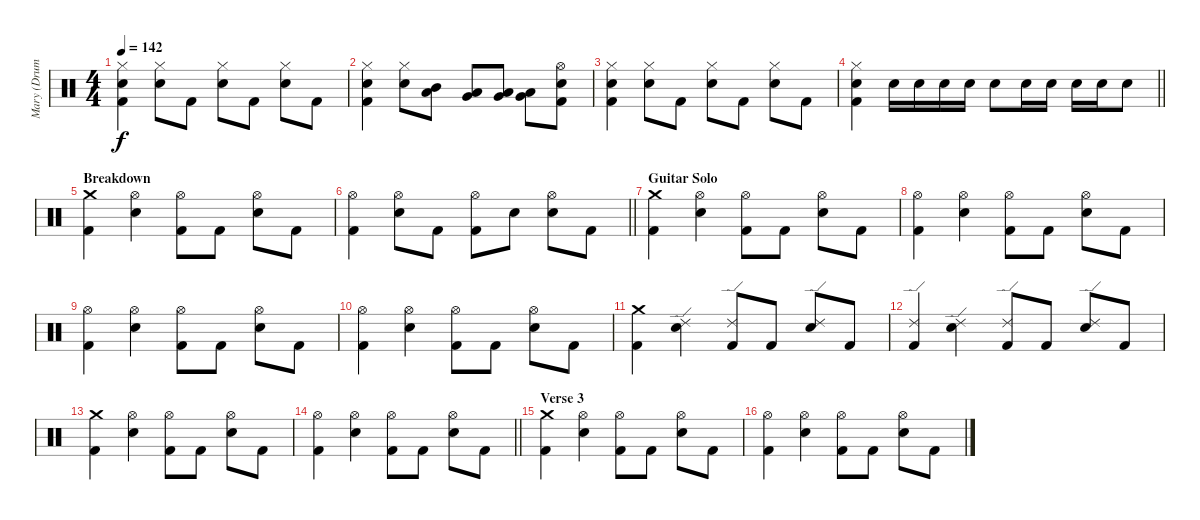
\track ("Mary (Drums)" "Mary (Drum") {instrument percussion}
\staff {score}
\articulation defaults
\ts (4 4)
\tempo 142
\clef neutral
\ks c
("Hi-Hat (closed)" "Snare (hit) 2" "Kick (hit) 2").4{dy f} ("Hi-Hat (closed)" "Snare (hit) 2").8 "Kick (hit) 2".8 ("Hi-Hat (closed)" "Snare (hit) 2").8 "Kick (hit) 2".8 ("Hi-Hat (closed)" "Snare (hit) 2").8 "Kick (hit) 2".8 |
("Hi-Hat (closed)" "Snare (hit) 2" "Kick (hit) 2").4 ("Hi-Hat (closed)" "Snare (hit) 2").8 ("Mid Tom (hit)" "Low Tom (hit)").8 ("Very Low Tom (hit)" "Low Tom (hit)").8 ("Very Low Tom (hit)" "Low Floor Tom (hit)").8 ("Very Low Tom (hit)" "Low Floor Tom (hit)").8 ("Hi-Hat (open)" "Snare (hit) 2" "Kick (hit) 2").8 |
("Hi-Hat (closed)" "Snare (hit) 2" "Kick (hit) 2").4 ("Hi-Hat (closed)" "Snare (hit) 2").8 "Kick (hit) 2".8 ("Hi-Hat (closed)" "Snare (hit) 2").8 "Kick (hit) 2".8 ("Hi-Hat (closed)" "Snare (hit) 2").8 "Kick (hit) 2".8 |
\barLineRight lightlight
("Hi-Hat (closed)" "Snare (hit) 2" "Kick (hit) 2").4 "Snare (hit) 2".16 "Snare (hit) 2".16 "Snare (hit) 2".16 "Snare (hit) 2".16 "Snare (hit) 2".8 "Snare (hit) 2".16 "Snare (hit) 2".16 "Snare (hit) 2".16 "Snare (hit) 2".16 "Snare (hit) 2".8 |
\section ("" "Breakdown")
("Crash medium (hit)" "Kick (hit) 2").4 ("Hi-Hat (open)" "Snare (hit) 2").4 ("Hi-Hat (open)" "Kick (hit) 2").8 "Kick (hit) 2".8 ("Hi-Hat (open)" "Snare (hit) 2").8 "Kick (hit) 2".8 |
\barLineRight lightlight
("Hi-Hat (open)" "Kick (hit) 2").4 ("Hi-Hat (open)" "Snare (hit) 2").8 "Kick (hit) 2".8 ("Hi-Hat (open)" "Kick (hit) 2").8 "Snare (hit) 2".8 ("Hi-Hat (open)" "Snare (hit) 2").8 "Kick (hit) 2".8 |
\section ("" "Guitar Solo")
("Crash medium (hit)" "Kick (hit) 2").4 ("Hi-Hat (open)" "Snare (hit) 2").4 ("Hi-Hat (open)" "Kick (hit) 2").8 "Kick (hit) 2".8 ("Hi-Hat (open)" "Snare (hit) 2").8 "Kick (hit) 2".8 |
("Hi-Hat (open)" "Kick (hit) 2").4 ("Hi-Hat (open)" "Snare (hit) 2").4 ("Hi-Hat (open)" "Kick (hit) 2").8 "Kick (hit) 2".8 ("Hi-Hat (open)" "Snare (hit) 2").8 "Kick (hit) 2".8 |
("Hi-Hat (open)" "Kick (hit) 2").4 ("Hi-Hat (open)" "Snare (hit) 2").4 ("Hi-Hat (open)" "Kick (hit) 2").8 "Kick (hit) 2".8 ("Hi-Hat (open)" "Snare (hit) 2").8 "Kick (hit) 2".8 |
("Hi-Hat (open)" "Kick (hit) 2").4 ("Hi-Hat (open)" "Snare (hit) 2").4 ("Hi-Hat (open)" "Kick (hit) 2").8 "Kick (hit) 2".8 ("Hi-Hat (open)" "Snare (hit) 2").8 "Kick (hit) 2".8 |
("Crash medium (hit)" "Kick (hit) 2").4 ("Ride (edge) 2" "Snare (hit) 2").4 ("Ride (edge) 2" "Kick (hit) 2").8 "Kick (hit) 2".8 ("Ride (edge) 2" "Snare (hit) 2").8 "Kick (hit) 2".8 |
("Ride (edge) 2" "Kick (hit) 2").4 ("Ride (edge) 2" "Snare (hit) 2").4 ("Ride (edge) 2" "Kick (hit) 2").8 "Kick (hit) 2".8 ("Ride (edge) 2" "Snare (hit) 2").8 "Kick (hit) 2".8 |
("Crash medium (hit)" "Kick (hit) 2").4 ("Hi-Hat (open)" "Snare (hit) 2").4 ("Hi-Hat (open)" "Kick (hit) 2").8 "Kick (hit) 2".8 ("Hi-Hat (open)" "Snare (hit) 2").8 "Kick (hit) 2".8 |
\barLineRight lightlight
("Hi-Hat (open)" "Kick (hit) 2").4 ("Hi-Hat (open)" "Snare (hit) 2").4 ("Hi-Hat (open)" "Kick (hit) 2").8 "Kick (hit) 2".8 ("Hi-Hat (open)" "Snare (hit) 2").8 "Kick (hit) 2".8 |
\section ("" "Verse 3")
("Crash medium (hit)" "Kick (hit) 2").4 ("Hi-Hat (open)" "Snare (hit) 2").4 ("Hi-Hat (open)" "Kick (hit) 2").8 "Kick (hit) 2".8 ("Hi-Hat (open)" "Snare (hit) 2").8 "Kick (hit) 2".8 |
("Hi-Hat (open)" "Kick (hit) 2").4 ("Hi-Hat (open)" "Snare (hit) 2").4 ("Hi-Hat (open)" "Kick (hit) 2").8 "Kick (hit) 2".8 ("Hi-Hat (open)" "Snare (hit) 2").8 "Kick (hit) 2".8
